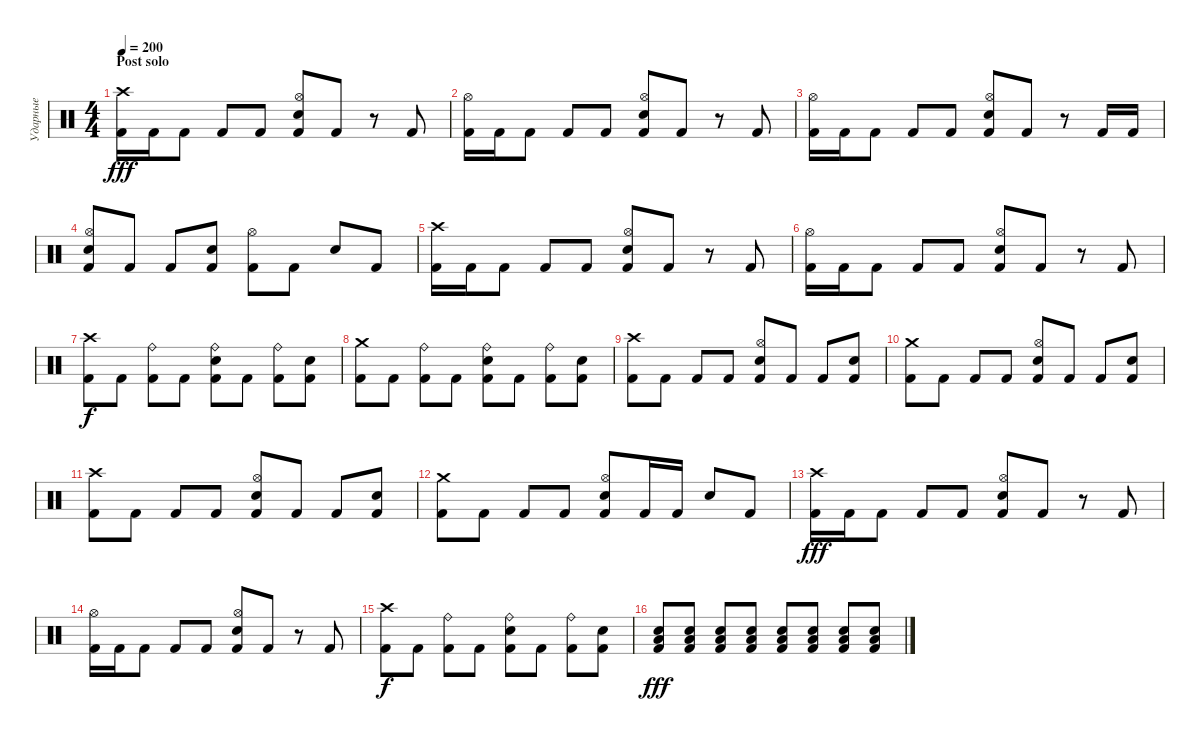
\track ("Ударные" "Ударные") {instrument percussion}
\staff {score}
\articulation defaults
\ts (4 4)
\section ("" "Post solo")
\tempo 200
\clef neutral
\ks c
("Crash high (hit)" "Kick (hit) 2").16{dy fff} "Kick (hit) 2".16 "Kick (hit) 2".8 "Kick (hit) 2".8 "Kick (hit) 2".8 ("Hi-Hat (open)" "Snare (hit) 2" "Kick (hit) 2").8 "Kick (hit) 2".8 r.8 "Kick (hit) 2".8 |
("Hi-Hat (open)" "Kick (hit) 2").16 "Kick (hit) 2".16 "Kick (hit) 2".8 "Kick (hit) 2".8 "Kick (hit) 2".8 ("Hi-Hat (open)" "Snare (hit) 2" "Kick (hit) 2").8 "Kick (hit) 2".8 r.8 "Kick (hit) 2".8 |
("Hi-Hat (open)" "Kick (hit) 2").16 "Kick (hit) 2".16 "Kick (hit) 2".8 "Kick (hit) 2".8 "Kick (hit) 2".8 ("Hi-Hat (open)" "Snare (hit) 2" "Kick (hit) 2").8 "Kick (hit) 2".8 r.8 "Kick (hit) 2".16 "Kick (hit) 2".16 |
("Hi-Hat (open)" "Snare (hit) 2" "Kick (hit) 2").8 "Kick (hit) 2".8 "Kick (hit) 2".8 ("Snare (hit) 2" "Kick (hit) 2").8 ("Hi-Hat (open)" "Kick (hit) 2").8 "Kick (hit) 2".8 "Snare (hit) 2".8 "Kick (hit) 2".8 |
("Crash high (hit)" "Kick (hit) 2").16 "Kick (hit) 2".16 "Kick (hit) 2".8 "Kick (hit) 2".8 "Kick (hit) 2".8 ("Hi-Hat (open)" "Snare (hit) 2" "Kick (hit) 2").8 "Kick (hit) 2".8 r.8 "Kick (hit) 2".8 |
("Hi-Hat (open)" "Kick (hit) 2").16 "Kick (hit) 2".16 "Kick (hit) 2".8 "Kick (hit) 2".8 "Kick (hit) 2".8 ("Hi-Hat (open)" "Snare (hit) 2" "Kick (hit) 2").8 "Kick (hit) 2".8 r.8 "Kick (hit) 2".8 |
("Crash high (hit)" "Kick (hit) 2").8{dy f} "Kick (hit) 2".8 ("Ride (bell)" "Kick (hit) 2").8 "Kick (hit) 2".8 ("Ride (bell)" "Snare (hit) 2" "Kick (hit) 2").8 "Kick (hit) 2".8 ("Ride (bell)" "Kick (hit) 2").8 ("Snare (hit) 2" "Kick (hit) 2").8 |
("Crash medium (hit)" "Kick (hit) 2").8 "Kick (hit) 2".8 ("Ride (bell)" "Kick (hit) 2").8 "Kick (hit) 2".8 ("Ride (bell)" "Snare (hit) 2" "Kick (hit) 2").8 "Kick (hit) 2".8 ("Ride (bell)" "Kick (hit) 2").8 ("Snare (hit) 2" "Kick (hit) 2").8 |
("Crash high (hit)" "Kick (hit) 2").8 "Kick (hit) 2".8 "Kick (hit) 2".8 "Kick (hit) 2".8 ("Hi-Hat (open)" "Snare (hit) 2" "Kick (hit) 2").8 "Kick (hit) 2".8 "Kick (hit) 2".8 ("Snare (hit) 2" "Kick (hit) 2").8 |
("Crash medium (hit)" "Kick (hit) 2").8 "Kick (hit) 2".8 "Kick (hit) 2".8 "Kick (hit) 2".8 ("Hi-Hat (open)" "Snare (hit) 2" "Kick (hit) 2").8 "Kick (hit) 2".8 "Kick (hit) 2".8 ("Snare (hit) 2" "Kick (hit) 2").8 |
("Crash high (hit)" "Kick (hit) 2").8 "Kick (hit) 2".8 "Kick (hit) 2".8 "Kick (hit) 2".8 ("Hi-Hat (open)" "Snare (hit) 2" "Kick (hit) 2").8 "Kick (hit) 2".8 "Kick (hit) 2".8 ("Snare (hit) 2" "Kick (hit) 2").8 |
("Crash medium (hit)" "Kick (hit) 2").8 "Kick (hit) 2".8 "Kick (hit) 2".8 "Kick (hit) 2".8 ("Hi-Hat (open)" "Snare (hit) 2" "Kick (hit) 2").8 "Kick (hit) 2".16 "Kick (hit) 2".16 "Snare (hit) 2".8 "Kick (hit) 2".8 |
("Crash high (hit)" "Kick (hit) 2").16{dy fff} "Kick (hit) 2".16 "Kick (hit) 2".8 "Kick (hit) 2".8 "Kick (hit) 2".8 ("Hi-Hat (open)" "Snare (hit) 2" "Kick (hit) 2").8 "Kick (hit) 2".8 r.8 "Kick (hit) 2".8 |
("Hi-Hat (open)" "Kick (hit) 2").16 "Kick (hit) 2".16 "Kick (hit) 2".8 "Kick (hit) 2".8 "Kick (hit) 2".8 ("Hi-Hat (open)" "Snare (hit) 2" "Kick (hit) 2").8 "Kick (hit) 2".8 r.8 "Kick (hit) 2".8 |
("Crash high (hit)" "Kick (hit) 2").8{dy f} "Kick (hit) 2".8 ("Ride (bell)" "Kick (hit) 2").8 "Kick (hit) 2".8 ("Ride (bell)" "Snare (hit) 2" "Kick (hit) 2").8 "Kick (hit) 2".8 ("Ride (bell)" "Kick (hit) 2").8 ("Snare (hit) 2" "Kick (hit) 2").8 |
("Low Floor Tom (hit)" "Snare (hit) 2" "Kick (hit) 2").8{dy fff} ("Low Floor Tom (hit)" "Snare (hit) 2" "Kick (hit) 2").8 ("Low Floor Tom (hit)" "Snare (hit) 2" "Kick (hit) 2").8 ("Low Floor Tom (hit)" "Snare (hit) 2" "Kick (hit) 2").8 ("Low Floor Tom (hit)" "Snare (hit) 2" "Kick (hit) 2").8 ("Low Floor Tom (hit)" "Snare (hit) 2" "Kick (hit) 2").8 ("Low Floor Tom (hit)" "Snare (hit) 2" "Kick (hit) 2").8 ("Low Floor Tom (hit)" "Snare (hit) 2" "Kick (hit) 2").8
